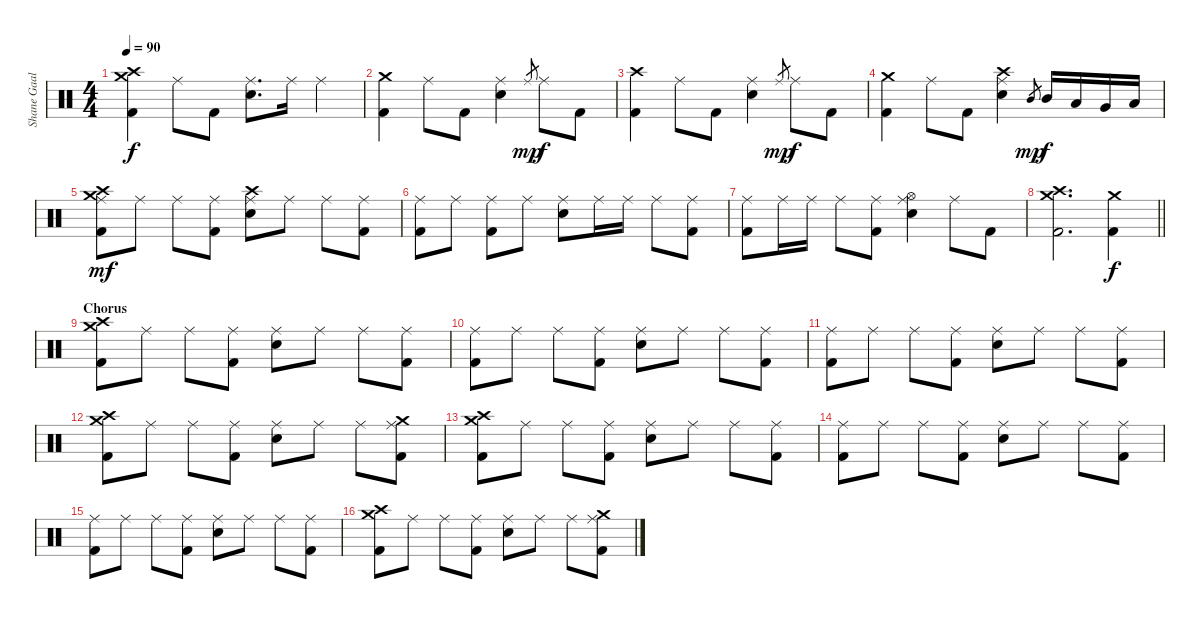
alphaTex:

\track ("Shane Gaalaas" "Shane Gaal") {instrument percussion}
\staff {score}
\articulation defaults
\ts (4 4)
\tempo 90
\clef neutral
\ks c
("Crash medium (hit)" "Crash high (hit)" "Kick (hit) 2").4{dy f} "Ride (middle)".8 "Kick (hit) 2".8 ("Ride (middle)" "Electric Snare (hit)").8{d} "Ride (middle)".16 "Ride (middle)".4 |
("Crash medium (hit)" "Kick (hit) 2").4 "Ride (middle)".8 "Kick (hit) 2".8 ("Ride (middle)" "Electric Snare (hit)").4 "Ride (middle)".8{gr dy mp} "Ride (middle)".8{dy f} "Kick (hit) 2".8 |
("Crash high (hit)" "Kick (hit) 2").4 "Ride (middle)".8 "Kick (hit) 2".8 ("Ride (middle)" "Electric Snare (hit)").4 "Ride (middle)".8{gr dy mp} "Ride (middle)".8{dy f} "Kick (hit) 2".8 |
("Crash medium (hit)" "Kick (hit) 2").4 "Ride (middle)".8 "Kick (hit) 2".8 ("Crash high (hit)" "Ride (middle)" "Electric Snare (hit)").4 "Mid Tom (hit)".8{gr dy mp} "Mid Tom (hit)".16{dy f} "Low Tom (hit)".16 "Very Low Tom (hit)".16 "Low Floor Tom (hit)".16 |
("Crash high (hit)" "Crash medium (hit)" "Ride (middle)" "Kick (hit) 2").8{dy mf} "Ride (middle)".8 "Ride (middle)".8 ("Ride (middle)" "Kick (hit) 2").8 ("Crash high (hit)" "Ride (middle)" "Electric Snare (hit)").8 "Ride (middle)".8 "Ride (middle)".8 ("Ride (middle)" "Kick (hit) 2").8 |
("Ride (middle)" "Kick (hit) 2").8 "Ride (middle)".8 ("Ride (middle)" "Kick (hit) 2").8 "Ride (middle)".8 ("Ride (middle)" "Electric Snare (hit)").8 "Ride (middle)".16 "Ride (middle)".16 "Ride (middle)".8 ("Ride (middle)" "Kick (hit) 2").8 |
("Ride (middle)" "Kick (hit) 2").8 "Ride (middle)".16 "Ride (middle)".16 "Ride (middle)".8 ("Ride (middle)" "Kick (hit) 2").8 ("Hi-Hat (open)" "Ride (middle)" "Electric Snare (hit)").4 "Ride (middle)".8 "Kick (hit) 2".8 |
\barLineRight lightlight
("Crash high (hit)" "Crash medium (hit)" "Kick (hit) 2").2{d} ("Crash medium (hit)" "Kick (hit) 2").4{dy f} |
\section ("" "Chorus")
("Crash high (hit)" "Crash medium (hit)" "Kick (hit) 2").8 "Ride (middle)".8 "Ride (middle)".8 ("Ride (middle)" "Kick (hit) 2").8 ("Ride (middle)" "Electric Snare (hit)").8 "Ride (middle)".8 "Ride (middle)".8 ("Ride (middle)" "Kick (hit) 2").8 |
("Ride (middle)" "Kick (hit) 2").8 "Ride (middle)".8 "Ride (middle)".8 ("Ride (middle)" "Kick (hit) 2").8 ("Ride (middle)" "Electric Snare (hit)").8 "Ride (middle)".8 "Ride (middle)".8 ("Ride (middle)" "Kick (hit) 2").8 |
("Ride (middle)" "Kick (hit) 2").8 "Ride (middle)".8 "Ride (middle)".8 ("Ride (middle)" "Kick (hit) 2").8 ("Ride (middle)" "Electric Snare (hit)").8 "Ride (middle)".8 "Ride (middle)".8 ("Ride (middle)" "Kick (hit) 2").8 |
("Crash high (hit)" "Crash medium (hit)" "Kick (hit) 2").8 "Ride (middle)".8 "Ride (middle)".8 ("Ride (middle)" "Kick (hit) 2").8 ("Ride (middle)" "Electric Snare (hit)").8 "Ride (middle)".8 "Ride (middle)".8 ("Crash medium (hit)" "Ride (middle)" "Kick (hit) 2").8 |
("Crash high (hit)" "Crash medium (hit)" "Kick (hit) 2").8 "Ride (middle)".8 "Ride (middle)".8 ("Ride (middle)" "Kick (hit) 2").8 ("Ride (middle)" "Electric Snare (hit)").8 "Ride (middle)".8 "Ride (middle)".8 ("Ride (middle)" "Kick (hit) 2").8 |
("Ride (middle)" "Kick (hit) 2").8 "Ride (middle)".8 "Ride (middle)".8 ("Ride (middle)" "Kick (hit) 2").8 ("Ride (middle)" "Electric Snare (hit)").8 "Ride (middle)".8 "Ride (middle)".8 ("Ride (middle)" "Kick (hit) 2").8 |
("Ride (middle)" "Kick (hit) 2").8 "Ride (middle)".8 "Ride (middle)".8 ("Ride (middle)" "Kick (hit) 2").8 ("Ride (middle)" "Electric Snare (hit)").8 "Ride (middle)".8 "Ride (middle)".8 ("Ride (middle)" "Kick (hit) 2").8 |
("Crash high (hit)" "Crash medium (hit)" "Kick (hit) 2").8 "Ride (middle)".8 "Ride (middle)".8 ("Ride (middle)" "Kick (hit) 2").8 ("Ride (middle)" "Electric Snare (hit)").8 "Ride (middle)".8 "Ride (middle)".8 ("Crash medium (hit)" "Ride (middle)" "Kick (hit) 2").8
